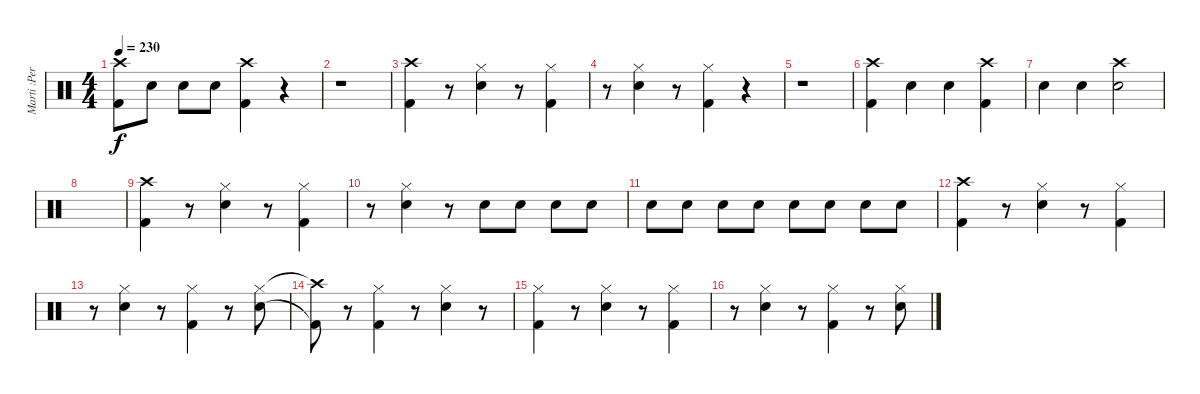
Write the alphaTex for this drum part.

\track ("Marti :Percussion" "Marti :Per") {instrument percussion}
\staff {score}
\articulation defaults
\ts (4 4)
\tempo 230
\clef neutral
\ks c
("Crash high (hit)"{t} "Kick (hit) 2"{t}).8{dy f} "Snare (hit) 2".8 "Snare (hit) 2".8 "Snare (hit) 2".8 ("Crash high (hit)" "Kick (hit) 2").4 r.4 |
r.1 |
("Crash high (hit)" "Kick (hit) 2").4 r.8 ("Hi-Hat (closed)" "Snare (hit) 2").4 r.8 ("Hi-Hat (closed)" "Kick (hit) 2").4 |
r.8 ("Hi-Hat (closed)" "Snare (hit) 2").4 r.8 ("Hi-Hat (closed)" "Kick (hit) 2").4 r.4 |
r.1 |
("Crash high (hit)" "Kick (hit) 2").4 "Snare (hit) 2".4 "Snare (hit) 2".4 ("Crash high (hit)" "Kick (hit) 2").4 |
"Snare (hit) 2".4 "Snare (hit) 2".4 ("Crash high (hit)" "Snare (hit) 2").2 |
|
("Crash high (hit)" "Kick (hit) 2").4 r.8 ("Hi-Hat (closed)" "Snare (hit) 2").4 r.8 ("Hi-Hat (closed)" "Kick (hit) 2").4 |
r.8 ("Hi-Hat (closed)" "Snare (hit) 2").4 r.8 "Snare (hit) 2".8 "Snare (hit) 2".8 "Snare (hit) 2".8 "Snare (hit) 2".8 |
"Snare (hit) 2".8 "Snare (hit) 2".8 "Snare (hit) 2".8 "Snare (hit) 2".8 "Snare (hit) 2".8 "Snare (hit) 2".8 "Snare (hit) 2".8 "Snare (hit) 2".8 |
("Crash high (hit)" "Kick (hit) 2").4 r.8 ("Hi-Hat (closed)" "Snare (hit) 2").4 r.8 ("Hi-Hat (closed)" "Kick (hit) 2").4 |
r.8 ("Hi-Hat (closed)" "Snare (hit) 2").4 r.8 ("Hi-Hat (closed)" "Kick (hit) 2").4 r.8 ("Hi-Hat (closed)" "Snare (hit) 2").8 |
("Crash high (hit)"{t} "Kick (hit) 2"{t}).8 r.8 ("Hi-Hat (closed)" "Kick (hit) 2").4 r.8 ("Hi-Hat (closed)" "Snare (hit) 2").4 r.8 |
("Hi-Hat (closed)" "Kick (hit) 2").4 r.8 ("Hi-Hat (closed)" "Snare (hit) 2").4 r.8 ("Hi-Hat (closed)" "Kick (hit) 2").4 |
r.8 ("Hi-Hat (closed)" "Snare (hit) 2").4 r.8 ("Hi-Hat (closed)" "Kick (hit) 2").4 r.8 ("Hi-Hat (closed)" "Snare (hit) 2").8
